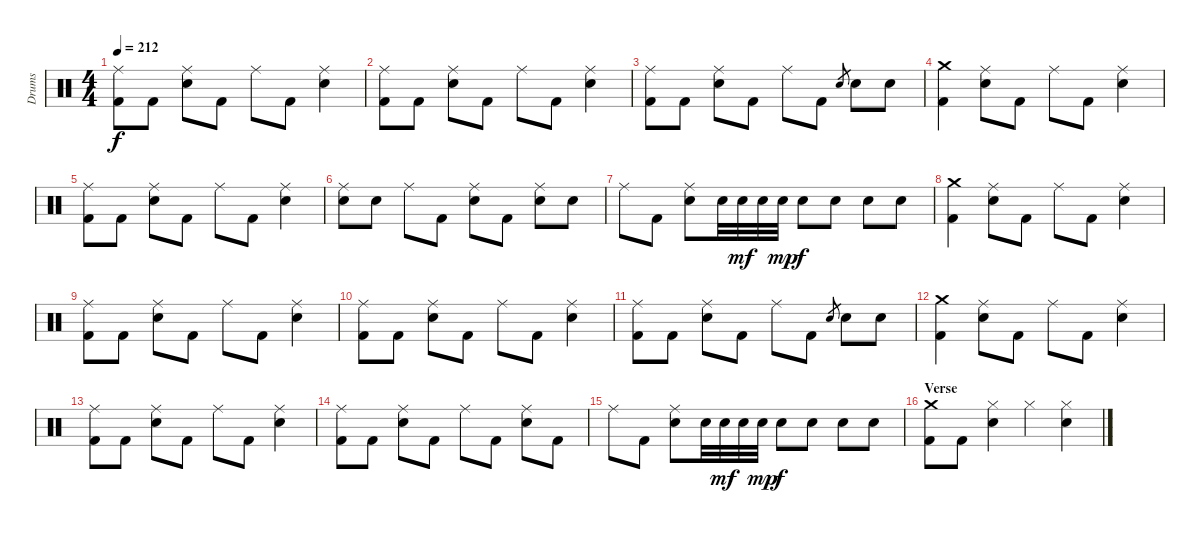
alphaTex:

\track ("Drums" "Drums") {instrument percussion}
\staff {score}
\articulation defaults
\ts (4 4)
\tempo 212
\clef neutral
\ks c
("Ride (middle)" "Kick (hit) 2").8{dy f} "Kick (hit) 2".8 ("Ride (middle)" "Electric Snare (hit)").8 "Kick (hit) 2".8 "Ride (middle)".8 "Kick (hit) 2".8 ("Ride (middle)" "Electric Snare (hit)").4 |
("Ride (middle)" "Kick (hit) 2").8 "Kick (hit) 2".8 ("Ride (middle)" "Electric Snare (hit)").8 "Kick (hit) 2".8 "Ride (middle)".8 "Kick (hit) 2".8 ("Ride (middle)" "Electric Snare (hit)").4 |
("Ride (middle)" "Kick (hit) 2").8 "Kick (hit) 2".8 ("Ride (middle)" "Electric Snare (hit)").8 "Kick (hit) 2".8 "Ride (middle)".8 "Kick (hit) 2".8 "Electric Snare (hit)".8{gr} "Electric Snare (hit)".8 "Electric Snare (hit)".8 |
("Crash medium (hit)" "Kick (hit) 2").4 ("Ride (middle)" "Electric Snare (hit)").8 "Kick (hit) 2".8 "Ride (middle)".8 "Kick (hit) 2".8 ("Ride (middle)" "Electric Snare (hit)").4 |
("Ride (middle)" "Kick (hit) 2").8 "Kick (hit) 2".8 ("Ride (middle)" "Electric Snare (hit)").8 "Kick (hit) 2".8 "Ride (middle)".8 "Kick (hit) 2".8 ("Ride (middle)" "Electric Snare (hit)").4 |
("Ride (middle)" "Electric Snare (hit)").8 "Electric Snare (hit)".8 "Ride (middle)".8 "Kick (hit) 2".8 ("Ride (middle)" "Electric Snare (hit)").8 "Kick (hit) 2".8 ("Ride (middle)" "Electric Snare (hit)").8 "Electric Snare (hit)".8 |
"Ride (middle)".8 "Kick (hit) 2".8 ("Ride (middle)" "Electric Snare (hit)").8 "Electric Snare (hit)".32 "Electric Snare (hit)".32{dy mf} "Electric Snare (hit)".32 "Electric Snare (hit)".32{dy mp} "Electric Snare (hit)".8{dy f} "Electric Snare (hit)".8 "Electric Snare (hit)".8 "Electric Snare (hit)".8 |
("Crash medium (hit)" "Kick (hit) 2").4 ("Ride (middle)" "Electric Snare (hit)").8 "Kick (hit) 2".8 "Ride (middle)".8 "Kick (hit) 2".8 ("Ride (middle)" "Electric Snare (hit)").4 |
("Ride (middle)" "Kick (hit) 2").8 "Kick (hit) 2".8 ("Ride (middle)" "Electric Snare (hit)").8 "Kick (hit) 2".8 "Ride (middle)".8 "Kick (hit) 2".8 ("Ride (middle)" "Electric Snare (hit)").4 |
("Ride (middle)" "Kick (hit) 2").8 "Kick (hit) 2".8 ("Ride (middle)" "Electric Snare (hit)").8 "Kick (hit) 2".8 "Ride (middle)".8 "Kick (hit) 2".8 ("Ride (middle)" "Electric Snare (hit)").4 |
("Ride (middle)" "Kick (hit) 2").8 "Kick (hit) 2".8 ("Ride (middle)" "Electric Snare (hit)").8 "Kick (hit) 2".8 "Ride (middle)".8 "Kick (hit) 2".8 "Electric Snare (hit)".8{gr} "Electric Snare (hit)".8 "Electric Snare (hit)".8 |
("Crash medium (hit)" "Kick (hit) 2").4 ("Ride (middle)" "Electric Snare (hit)").8 "Kick (hit) 2".8 "Ride (middle)".8 "Kick (hit) 2".8 ("Ride (middle)" "Electric Snare (hit)").4 |
("Ride (middle)" "Kick (hit) 2").8 "Kick (hit) 2".8 ("Ride (middle)" "Electric Snare (hit)").8 "Kick (hit) 2".8 "Ride (middle)".8 "Kick (hit) 2".8 ("Ride (middle)" "Electric Snare (hit)").4 |
("Ride (middle)" "Kick (hit) 2").8 "Kick (hit) 2".8 ("Ride (middle)" "Electric Snare (hit)").8 "Kick (hit) 2".8 "Ride (middle)".8 "Kick (hit) 2".8 ("Ride (middle)" "Electric Snare (hit)").8 "Kick (hit) 2".8 |
"Ride (middle)".8 "Kick (hit) 2".8 ("Ride (middle)" "Electric Snare (hit)").8 "Electric Snare (hit)".32 "Electric Snare (hit)".32{dy mf} "Electric Snare (hit)".32 "Electric Snare (hit)".32{dy mp} "Electric Snare (hit)".8{dy f} "Electric Snare (hit)".8 "Electric Snare (hit)".8 "Electric Snare (hit)".8 |
\section ("" "Verse")
("Crash medium (hit)" "Kick (hit) 2").8 "Kick (hit) 2".8 ("Hi-Hat (closed)" "Electric Snare (hit)").4 "Hi-Hat (closed)".4 ("Hi-Hat (closed)" "Electric Snare (hit)").4
